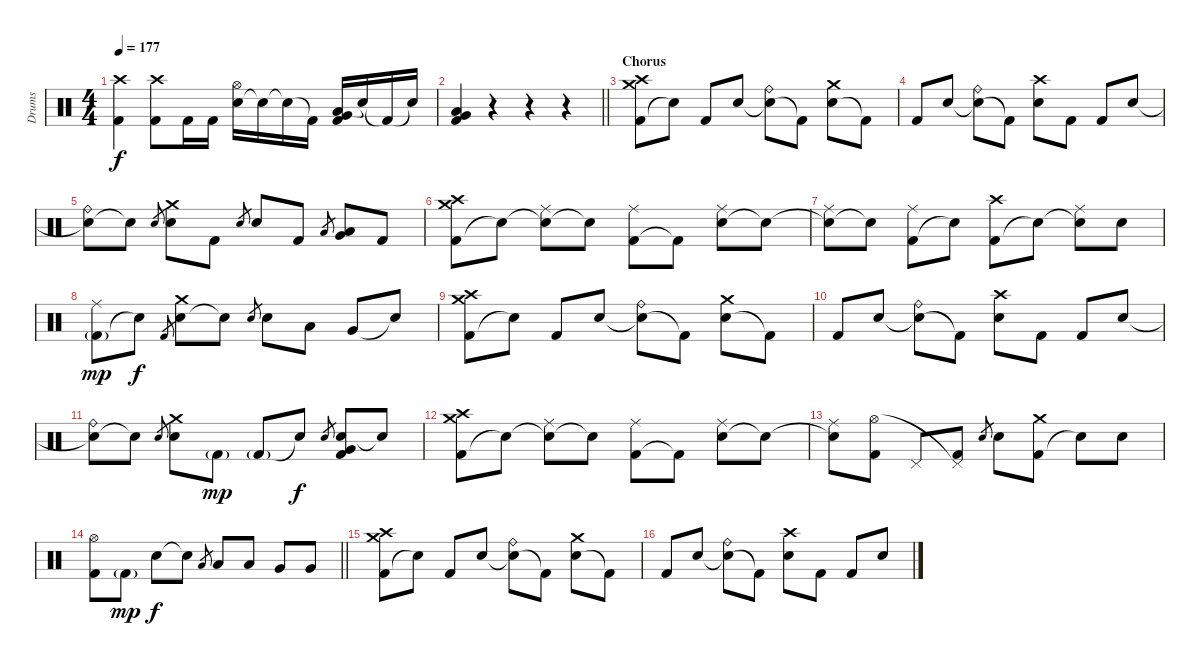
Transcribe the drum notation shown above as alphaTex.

\track ("Drums" "Drums") {instrument percussion}
\staff {score}
\articulation defaults
\ts (4 4)
\tempo 177
\clef neutral
\ks c
("Kick (hit) 2" "Crash high (hit)").4{dy f} ("Kick (hit) 2" "Crash high (hit)").8 "Kick (hit) 2".16 "Kick (hit) 2".16 ("Electric Snare (hit)" "Hi-Hat (open)").16 "Snare (hit)"{t}.16 "Snare (hit)"{t}.16 "Kick (hit) 2"{t}.16 ("Low Floor Tom (hit)" "Very Low Tom (hit)" "Kick (hit) 2").16 "Snare (hit)"{t}.16 "Kick (hit) 2"{t}.16 "Snare (hit)"{t}.16 |
\barLineRight lightlight
("Low Floor Tom (hit)" "Very Low Tom (hit)" "Kick (hit) 2").4 r.4 r.4 r.4 |
\section ("" "Chorus")
("Kick (hit) 2" "Crash medium (hit)" "Crash high (hit)").8 "Snare (hit)"{t}.8 "Kick (hit) 2".8 "Electric Snare (hit)".8 ("Snare (hit)"{t} "Ride (bell)").8 "Kick (hit) 2"{t}.8 ("Electric Snare (hit)" "Crash medium (hit)").8 "Kick (hit) 2"{t}.8 |
"Kick (hit) 2".8 "Electric Snare (hit)".8 ("Snare (hit)"{t} "Ride (bell)").8 "Kick (hit) 2"{t}.8 ("Electric Snare (hit)" "Crash high (hit)").8 "Kick (hit) 2".8 "Kick (hit) 2".8 "Electric Snare (hit)".8 |
("Snare (hit)"{t} "Ride (bell)").8 "Snare (hit)"{t}.8 "Electric Snare (hit)".8{gr} ("Electric Snare (hit)" "Crash medium (hit)").8 "Kick (hit) 2".8 "Electric Snare (hit)".8{gr} "Electric Snare (hit)".8 "Kick (hit) 2".8 "Low Tom (hit)".8{gr} ("Low Tom (hit)" "Very Low Tom (hit)").8 "Kick (hit) 2".8 |
("Kick (hit) 2" "Crash medium (hit)" "Crash high (hit)").8 "Snare (hit)"{t}.8 ("Snare (hit)"{t} "Ride (middle)").8 "Snare (hit)"{t}.8 ("Kick (hit) 2" "Ride (middle)").8 "Kick (hit) 2"{t}.8 ("Electric Snare (hit)" "Ride (middle)").8 "Snare (hit)"{t}.8 |
("Electric Snare (hit)"{t} "Ride (middle)").8 "Snare (hit)"{t}.8 ("Kick (hit) 2" "Ride (middle)").8 "Snare (hit)"{t}.8 ("Kick (hit) 2" "Crash high (hit)").8 "Snare (hit)"{t}.8 ("Snare (hit)"{t} "Ride (middle)").8 "Electric Snare (hit)".8 |
("Kick (hit) 2"{g} "Ride (middle)").8{dy mp} "Snare (hit)"{t}.8{dy f} "Kick (hit) 2".8{gr} ("Electric Snare (hit)" "Crash medium (hit)").8 "Snare (hit)"{t}.8 "Electric Snare (hit)".8{gr} "Electric Snare (hit)".8 "Low Tom (hit)".8 "Very Low Tom (hit)".8 "Snare (hit)"{t}.8 |
("Kick (hit) 2" "Crash medium (hit)" "Crash high (hit)").8 "Snare (hit)"{t}.8 "Kick (hit) 2".8 "Electric Snare (hit)".8 ("Snare (hit)"{t} "Ride (bell)").8 "Kick (hit) 2"{t}.8 ("Electric Snare (hit)" "Crash medium (hit)").8 "Kick (hit) 2"{t}.8 |
"Kick (hit) 2".8 "Electric Snare (hit)".8 ("Snare (hit)"{t} "Ride (bell)").8 "Kick (hit) 2"{t}.8 ("Electric Snare (hit)" "Crash high (hit)").8 "Kick (hit) 2".8 "Kick (hit) 2".8 "Electric Snare (hit)".8 |
("Snare (hit)"{t} "Ride (bell)").8 "Snare (hit)"{t}.8 "Electric Snare (hit)".8{gr} ("Electric Snare (hit)" "Crash medium (hit)").8 "Kick (hit) 2"{g}.8{dy mp} "Kick (hit) 2"{g}.8 "Snare (hit)"{t}.8{dy f} "Electric Snare (hit)".8{gr} ("Electric Snare (hit)" "Very Low Tom (hit)" "Kick (hit) 2").8 "Snare (hit)"{t}.8 |
("Kick (hit) 2" "Crash medium (hit)" "Crash high (hit)").8 "Snare (hit)"{t}.8 ("Snare (hit)"{t} "Ride (middle)").8 "Snare (hit)"{t}.8 ("Kick (hit) 2" "Ride (middle)").8 "Kick (hit) 2"{t}.8 ("Electric Snare (hit)" "Ride (middle)").8 "Snare (hit)"{t}.8 |
("Electric Snare (hit)"{t} "Ride (middle)").8 ("Kick (hit) 2" "Hi-Hat (open)").8 "Pedal Hi-Hat (hit)".8 ("Kick (hit) 2" "Pedal Hi-Hat (hit)"{t}).8 "Electric Snare (hit)".8{gr} "Electric Snare (hit)".8 ("Kick (hit) 2" "Crash medium (hit)").8 "Snare (hit)"{t}.8 "Electric Snare (hit)".8 |
\barLineRight lightlight
("Kick (hit) 2" "Hi-Hat (open)").8 "Kick (hit) 2"{g}.8{dy mp} "Electric Snare (hit)".8{dy f} "Electric Snare (hit)"{t}.8 "Low Tom (hit)".8{gr} "Low Tom (hit)".8 "Low Tom (hit)".8 "Very Low Tom (hit)".8 "Very Low Tom (hit)".8 |
("Kick (hit) 2" "Crash medium (hit)" "Crash high (hit)").8 "Snare (hit)"{t}.8 "Kick (hit) 2".8 "Electric Snare (hit)".8 ("Snare (hit)"{t} "Ride (bell)").8 "Kick (hit) 2"{t}.8 ("Electric Snare (hit)" "Crash medium (hit)").8 "Kick (hit) 2"{t}.8 |
"Kick (hit) 2".8 "Electric Snare (hit)".8 ("Snare (hit)"{t} "Ride (bell)").8 "Kick (hit) 2"{t}.8 ("Electric Snare (hit)" "Crash high (hit)").8 "Kick (hit) 2".8 "Kick (hit) 2".8 "Electric Snare (hit)".8
